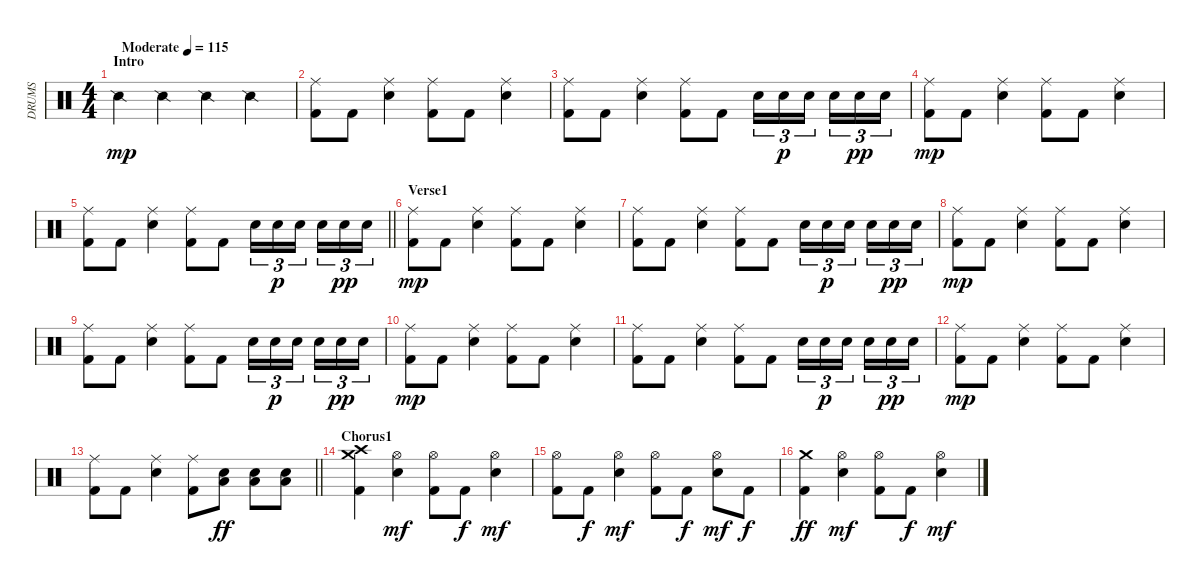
\track ("DRUMS" "DRUMS") {instrument percussion}
\staff {score}
\articulation defaults
\ts (4 4)
\section ("" "Intro")
\tempo (115 "Moderate")
\clef neutral
\ks c "Snare (side stick) 2".4{dy mp} "Snare (side stick) 2".4 "Snare (side stick) 2".4 "Snare (side stick) 2".4
|
("Ride (middle)" "Kick (hit) 2").8 "Kick (hit) 2".8 ("Ride (middle)" "Snare (hit) 2").4 ("Ride (middle)" "Kick (hit) 2").8 "Kick (hit) 2".8 ("Ride (middle)" "Snare (hit) 2").4 |
("Ride (middle)" "Kick (hit) 2").8 "Kick (hit) 2".8 ("Ride (middle)" "Snare (hit) 2").4 ("Ride (middle)" "Kick (hit) 2").8 "Kick (hit) 2".8 "Electric Snare (hit)".16{tu (3 2)} "Snare (hit) 2".16{tu (3 2) dy p} "Electric Snare (hit)".16{tu (3 2) beam splitsecondary} "Snare (hit) 2".16{tu (3 2)} "Electric Snare (hit)".16{tu (3 2) dy pp} "Snare (hit) 2".16{tu (3 2)} |
("Ride (middle)" "Kick (hit) 2").8{dy mp} "Kick (hit) 2".8 ("Ride (middle)" "Snare (hit) 2").4 ("Ride (middle)" "Kick (hit) 2").8 "Kick (hit) 2".8 ("Ride (middle)" "Snare (hit) 2").4 |
\barLineRight lightlight
("Ride (middle)" "Kick (hit) 2").8 "Kick (hit) 2".8 ("Ride (middle)" "Snare (hit) 2").4 ("Ride (middle)" "Kick (hit) 2").8 "Kick (hit) 2".8 "Electric Snare (hit)".16{tu (3 2)} "Snare (hit) 2".16{tu (3 2) dy p} "Electric Snare (hit)".16{tu (3 2) beam splitsecondary} "Snare (hit) 2".16{tu (3 2)} "Electric Snare (hit)".16{tu (3 2) dy pp} "Snare (hit) 2".16{tu (3 2)} |
\section ("" "Verse1")
("Ride (middle)" "Kick (hit) 2").8{dy mp} "Kick (hit) 2".8 ("Ride (middle)" "Snare (hit) 2").4 ("Ride (middle)" "Kick (hit) 2").8 "Kick (hit) 2".8 ("Ride (middle)" "Snare (hit) 2").4 |
("Ride (middle)" "Kick (hit) 2").8 "Kick (hit) 2".8 ("Ride (middle)" "Snare (hit) 2").4 ("Ride (middle)" "Kick (hit) 2").8 "Kick (hit) 2".8 "Electric Snare (hit)".16{tu (3 2)} "Snare (hit) 2".16{tu (3 2) dy p} "Electric Snare (hit)".16{tu (3 2) beam splitsecondary} "Snare (hit) 2".16{tu (3 2)} "Electric Snare (hit)".16{tu (3 2) dy pp} "Snare (hit) 2".16{tu (3 2)} |
("Ride (middle)" "Kick (hit) 2").8{dy mp} "Kick (hit) 2".8 ("Ride (middle)" "Snare (hit) 2").4 ("Ride (middle)" "Kick (hit) 2").8 "Kick (hit) 2".8 ("Ride (middle)" "Snare (hit) 2").4 |
("Ride (middle)" "Kick (hit) 2").8 "Kick (hit) 2".8 ("Ride (middle)" "Snare (hit) 2").4 ("Ride (middle)" "Kick (hit) 2").8 "Kick (hit) 2".8 "Electric Snare (hit)".16{tu (3 2)} "Snare (hit) 2".16{tu (3 2) dy p} "Electric Snare (hit)".16{tu (3 2) beam splitsecondary} "Snare (hit) 2".16{tu (3 2)} "Electric Snare (hit)".16{tu (3 2) dy pp} "Snare (hit) 2".16{tu (3 2)} |
("Ride (middle)" "Kick (hit) 2").8{dy mp} "Kick (hit) 2".8 ("Ride (middle)" "Snare (hit) 2").4 ("Ride (middle)" "Kick (hit) 2").8 "Kick (hit) 2".8 ("Ride (middle)" "Snare (hit) 2").4 |
("Ride (middle)" "Kick (hit) 2").8 "Kick (hit) 2".8 ("Ride (middle)" "Snare (hit) 2").4 ("Ride (middle)" "Kick (hit) 2").8 "Kick (hit) 2".8 "Electric Snare (hit)".16{tu (3 2)} "Snare (hit) 2".16{tu (3 2) dy p} "Electric Snare (hit)".16{tu (3 2) beam splitsecondary} "Snare (hit) 2".16{tu (3 2)} "Electric Snare (hit)".16{tu (3 2) dy pp} "Snare (hit) 2".16{tu (3 2)} |
("Ride (middle)" "Kick (hit) 2").8{dy mp} "Kick (hit) 2".8 ("Ride (middle)" "Snare (hit) 2").4 ("Ride (middle)" "Kick (hit) 2").8 "Kick (hit) 2".8 ("Ride (middle)" "Snare (hit) 2").4 |
\barLineRight lightlight
("Ride (middle)" "Kick (hit) 2").8 "Kick (hit) 2".8 ("Ride (middle)" "Snare (hit) 2").4 ("Ride (middle)" "Kick (hit) 2").8 ("Snare (hit) 2" "Low Floor Tom (hit)").8{dy ff} ("Snare (hit) 2" "Low Floor Tom (hit)").8 ("Snare (hit) 2" "Low Floor Tom (hit)").8 |
\section ("" "Chorus1")
("Crash high (hit)" "Crash medium (hit)" "Kick (hit) 2").4 ("Hi-Hat (open)" "Snare (hit) 2").4{dy mf} ("Hi-Hat (open)" "Kick (hit) 2").8 "Kick (hit) 2".8{dy f} ("Hi-Hat (open)" "Snare (hit) 2").4{dy mf} |
("Hi-Hat (open)" "Kick (hit) 2").8 "Kick (hit) 2".8{dy f} ("Hi-Hat (open)" "Snare (hit) 2").4{dy mf} ("Hi-Hat (open)" "Kick (hit) 2").8 "Kick (hit) 2".8{dy f} ("Hi-Hat (open)" "Snare (hit) 2").8{dy mf} "Kick (hit) 2".8{dy f} |
("Crash medium (hit)" "Kick (hit) 2").4{dy ff} ("Hi-Hat (open)" "Snare (hit) 2").4{dy mf} ("Hi-Hat (open)" "Kick (hit) 2").8 "Kick (hit) 2".8{dy f} ("Hi-Hat (open)" "Snare (hit) 2").4{dy mf}
